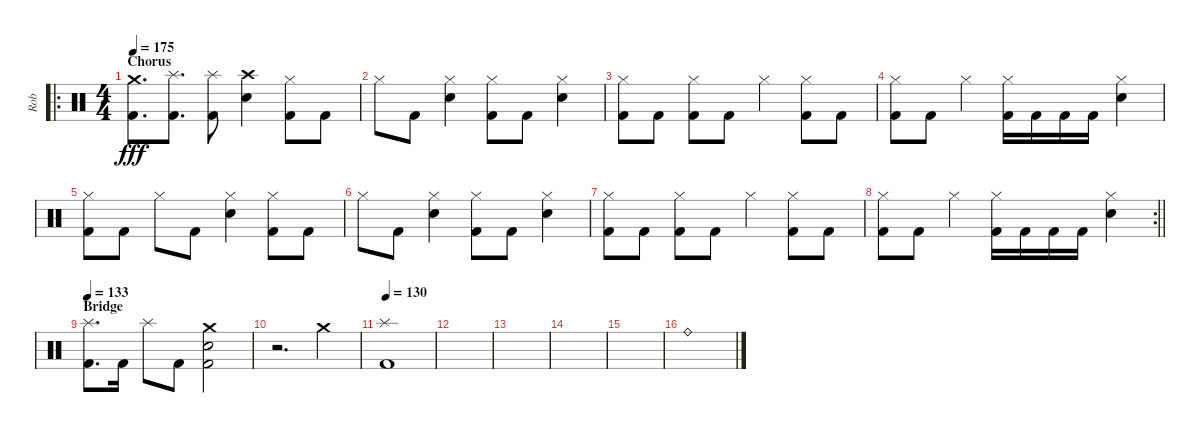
\track ("Rob" "Rob") {instrument percussion}
\staff {score}
\articulation defaults
\ro
\ts (4 4)
\section ("" "Chorus")
\tempo 175
\clef neutral
\ks c
("Crash medium (hit)" "Kick (hit) 2").8{d dy fff} ("Splash (hit)" "Kick (hit) 2").8{d} ("Splash (hit)" "Kick (hit) 2").8 ("Crash high (hit)" "Electric Snare (hit)").4 ("Hi-Hat (closed)" "Kick (hit) 2").8 "Kick (hit) 2".8 |
"Hi-Hat (closed)".8 "Kick (hit) 2".8 ("Hi-Hat (closed)" "Electric Snare (hit)").4 ("Hi-Hat (closed)" "Kick (hit) 2").8 "Kick (hit) 2".8 ("Hi-Hat (closed)" "Electric Snare (hit)").4 |
("Hi-Hat (closed)" "Kick (hit) 2").8 "Kick (hit) 2".8 ("Hi-Hat (closed)" "Kick (hit) 2").8 "Kick (hit) 2".8 "Hi-Hat (closed)".4 ("Hi-Hat (closed)" "Kick (hit) 2").8 "Kick (hit) 2".8 |
("Hi-Hat (closed)" "Kick (hit) 2").8 "Kick (hit) 2".8 "Hi-Hat (closed)".4 ("Hi-Hat (closed)" "Kick (hit) 2").16 "Kick (hit) 2".16 "Kick (hit) 2".16 "Kick (hit) 2".16 ("Hi-Hat (closed)" "Electric Snare (hit)").4 |
("Hi-Hat (closed)" "Kick (hit) 2").8 "Kick (hit) 2".8 "Hi-Hat (closed)".8 "Kick (hit) 2".8 ("Hi-Hat (closed)" "Electric Snare (hit)").4 ("Hi-Hat (closed)" "Kick (hit) 2").8 "Kick (hit) 2".8 |
"Hi-Hat (closed)".8 "Kick (hit) 2".8 ("Hi-Hat (closed)" "Electric Snare (hit)").4 ("Hi-Hat (closed)" "Kick (hit) 2").8 "Kick (hit) 2".8 ("Hi-Hat (closed)" "Electric Snare (hit)").4 |
("Hi-Hat (closed)" "Kick (hit) 2").8 "Kick (hit) 2".8 ("Hi-Hat (closed)" "Kick (hit) 2").8 "Kick (hit) 2".8 "Hi-Hat (closed)".4 ("Hi-Hat (closed)" "Kick (hit) 2").8 "Kick (hit) 2".8 |
\rc 2
\barLineRight lightlight
("Hi-Hat (closed)" "Kick (hit) 2").8 "Kick (hit) 2".8 "Hi-Hat (closed)".4 ("Hi-Hat (closed)" "Kick (hit) 2").16 "Kick (hit) 2".16 "Kick (hit) 2".16 "Kick (hit) 2".16 ("Hi-Hat (closed)" "Electric Snare (hit)").4 |
\section ("" "Bridge")
\tempo 133
("Splash (hit)" "Kick (hit) 2").8{d} "Kick (hit) 2".16 "Splash (hit)".8 "Kick (hit) 2".8 ("Crash medium (hit)" "Electric Snare (hit)" "Kick (hit) 2").2 |
r.2{d} "Crash medium (hit)".4 |
\tempo 130
("Splash (hit)" "Kick (hit) 2").1 |
|
|
|
|
"Ride (bell)".1
